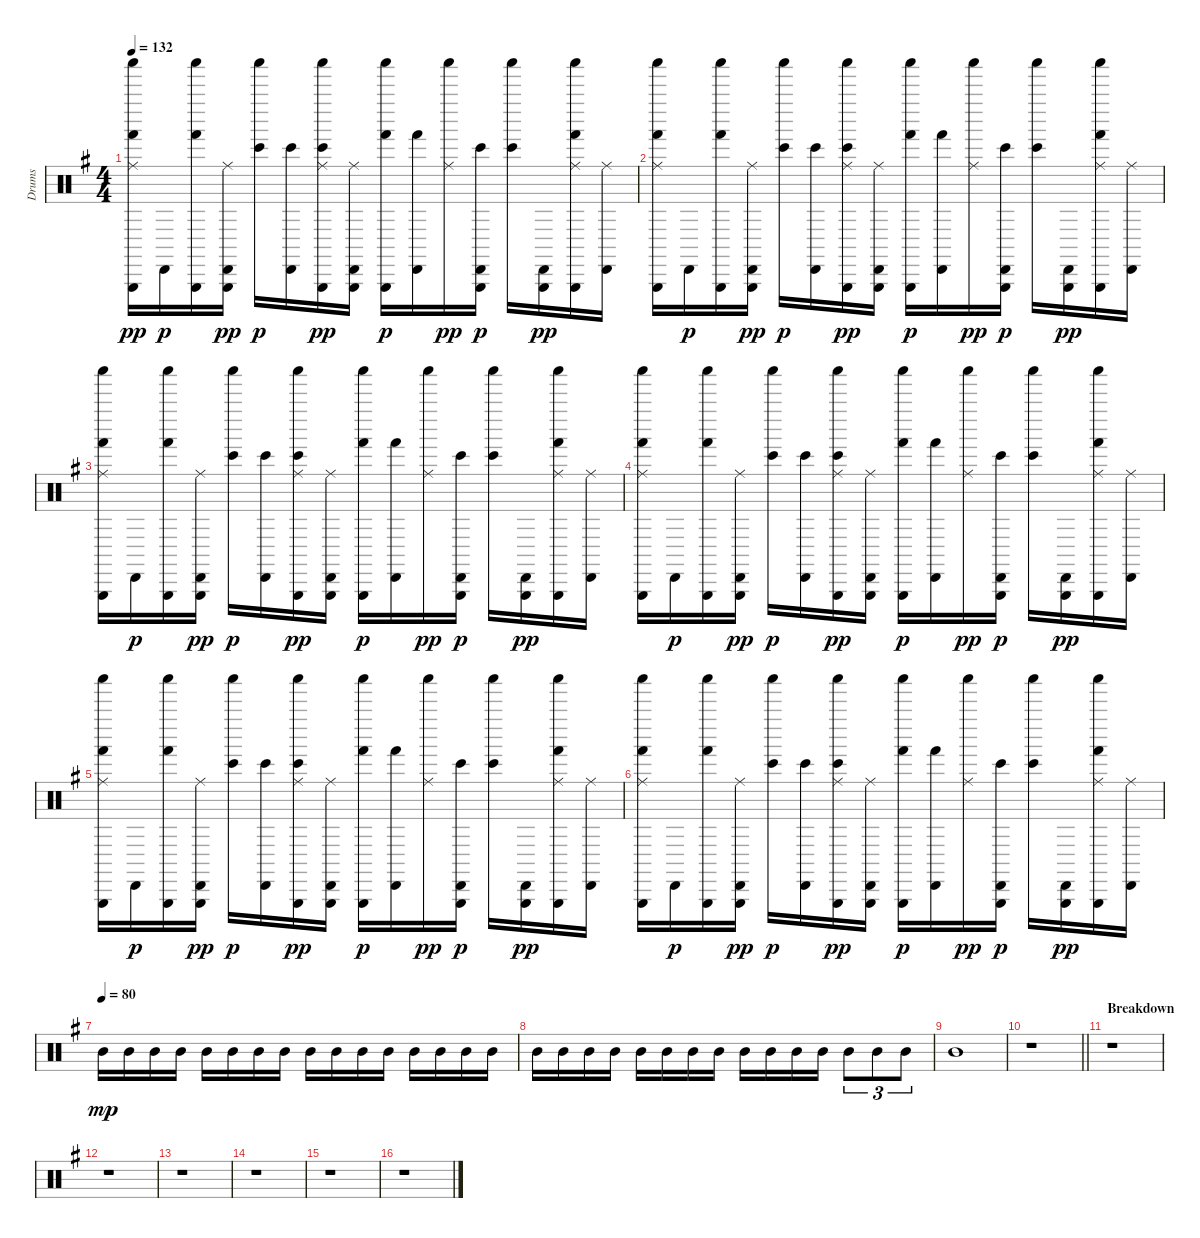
\track ("Drums" "Drums") {instrument percussion}
\staff {score}
\articulation defaults
\ts (4 4)
\tempo 132
\clef neutral
\ks g
("Shaker (hit)" "Triangle (hit)" "Hand (hit)" "Ride (middle)").16{dy pp} "Cabasa (hit)".16{dy p} ("Shaker (hit)" "Triangle (hit)" "Hand (hit)").16 ("Cabasa (hit)" "Triangle (hit)" "Ride (middle)").16{dy pp} ("Shaker (hit)" "Bongo High (hit)").16{dy p} ("Cabasa (hit)" "Bongo High (hit)").16 ("Shaker (hit)" "Triangle (hit)" "Bongo High (hit)" "Ride (middle)").16{dy pp} ("Cabasa (hit)" "Triangle (hit)" "Ride (middle)").16 ("Shaker (hit)" "Triangle (hit)" "Hand (hit)").16{dy p} ("Cabasa (hit)" "Hand (hit)").16 ("Shaker (hit)" "Ride (middle)").16{dy pp} ("Cabasa (hit)" "Triangle (hit)" "Bongo High (hit)").16{dy p} ("Shaker (hit)" "Bongo High (hit)").16 ("Cabasa (hit)" "Triangle (hit)").16{dy pp} ("Shaker (hit)" "Triangle (hit)" "Hand (hit)" "Ride (middle)").16 ("Cabasa (hit)" "Ride (middle)").16 |
("Shaker (hit)" "Triangle (hit)" "Hand (hit)" "Ride (middle)").16 "Cabasa (hit)".16{dy p} ("Shaker (hit)" "Triangle (hit)" "Hand (hit)").16 ("Cabasa (hit)" "Triangle (hit)" "Ride (middle)").16{dy pp} ("Shaker (hit)" "Bongo High (hit)").16{dy p} ("Cabasa (hit)" "Bongo High (hit)").16 ("Shaker (hit)" "Triangle (hit)" "Bongo High (hit)" "Ride (middle)").16{dy pp} ("Cabasa (hit)" "Triangle (hit)" "Ride (middle)").16 ("Shaker (hit)" "Triangle (hit)" "Hand (hit)").16{dy p} ("Cabasa (hit)" "Hand (hit)").16 ("Shaker (hit)" "Ride (middle)").16{dy pp} ("Cabasa (hit)" "Triangle (hit)" "Bongo High (hit)").16{dy p} ("Shaker (hit)" "Bongo High (hit)").16 ("Cabasa (hit)" "Triangle (hit)").16{dy pp} ("Shaker (hit)" "Triangle (hit)" "Hand (hit)" "Ride (middle)").16 ("Cabasa (hit)" "Ride (middle)").16 |
("Shaker (hit)" "Triangle (hit)" "Hand (hit)" "Ride (middle)").16 "Cabasa (hit)".16{dy p} ("Shaker (hit)" "Triangle (hit)" "Hand (hit)").16 ("Cabasa (hit)" "Triangle (hit)" "Ride (middle)").16{dy pp} ("Shaker (hit)" "Bongo High (hit)").16{dy p} ("Cabasa (hit)" "Bongo High (hit)").16 ("Shaker (hit)" "Triangle (hit)" "Bongo High (hit)" "Ride (middle)").16{dy pp} ("Cabasa (hit)" "Triangle (hit)" "Ride (middle)").16 ("Shaker (hit)" "Triangle (hit)" "Hand (hit)").16{dy p} ("Cabasa (hit)" "Hand (hit)").16 ("Shaker (hit)" "Ride (middle)").16{dy pp} ("Cabasa (hit)" "Triangle (hit)" "Bongo High (hit)").16{dy p} ("Shaker (hit)" "Bongo High (hit)").16 ("Cabasa (hit)" "Triangle (hit)").16{dy pp} ("Shaker (hit)" "Triangle (hit)" "Hand (hit)" "Ride (middle)").16 ("Cabasa (hit)" "Ride (middle)").16 |
("Shaker (hit)" "Triangle (hit)" "Hand (hit)" "Ride (middle)").16 "Cabasa (hit)".16{dy p} ("Shaker (hit)" "Triangle (hit)" "Hand (hit)").16 ("Cabasa (hit)" "Triangle (hit)" "Ride (middle)").16{dy pp} ("Shaker (hit)" "Bongo High (hit)").16{dy p} ("Cabasa (hit)" "Bongo High (hit)").16 ("Shaker (hit)" "Triangle (hit)" "Bongo High (hit)" "Ride (middle)").16{dy pp} ("Cabasa (hit)" "Triangle (hit)" "Ride (middle)").16 ("Shaker (hit)" "Triangle (hit)" "Hand (hit)").16{dy p} ("Cabasa (hit)" "Hand (hit)").16 ("Shaker (hit)" "Ride (middle)").16{dy pp} ("Cabasa (hit)" "Triangle (hit)" "Bongo High (hit)").16{dy p} ("Shaker (hit)" "Bongo High (hit)").16 ("Cabasa (hit)" "Triangle (hit)").16{dy pp} ("Shaker (hit)" "Triangle (hit)" "Hand (hit)" "Ride (middle)").16 ("Cabasa (hit)" "Ride (middle)").16 |
("Shaker (hit)" "Triangle (hit)" "Hand (hit)" "Ride (middle)").16 "Cabasa (hit)".16{dy p} ("Shaker (hit)" "Triangle (hit)" "Hand (hit)").16 ("Cabasa (hit)" "Triangle (hit)" "Ride (middle)").16{dy pp} ("Shaker (hit)" "Bongo High (hit)").16{dy p} ("Cabasa (hit)" "Bongo High (hit)").16 ("Shaker (hit)" "Triangle (hit)" "Bongo High (hit)" "Ride (middle)").16{dy pp} ("Cabasa (hit)" "Triangle (hit)" "Ride (middle)").16 ("Shaker (hit)" "Triangle (hit)" "Hand (hit)").16{dy p} ("Cabasa (hit)" "Hand (hit)").16 ("Shaker (hit)" "Ride (middle)").16{dy pp} ("Cabasa (hit)" "Triangle (hit)" "Bongo High (hit)").16{dy p} ("Shaker (hit)" "Bongo High (hit)").16 ("Cabasa (hit)" "Triangle (hit)").16{dy pp} ("Shaker (hit)" "Triangle (hit)" "Hand (hit)" "Ride (middle)").16 ("Cabasa (hit)" "Ride (middle)").16 |
("Shaker (hit)" "Triangle (hit)" "Hand (hit)" "Ride (middle)").16 "Cabasa (hit)".16{dy p} ("Shaker (hit)" "Triangle (hit)" "Hand (hit)").16 ("Cabasa (hit)" "Triangle (hit)" "Ride (middle)").16{dy pp} ("Shaker (hit)" "Bongo High (hit)").16{dy p} ("Cabasa (hit)" "Bongo High (hit)").16 ("Shaker (hit)" "Triangle (hit)" "Bongo High (hit)" "Ride (middle)").16{dy pp} ("Cabasa (hit)" "Triangle (hit)" "Ride (middle)").16 ("Shaker (hit)" "Triangle (hit)" "Hand (hit)").16{dy p} ("Cabasa (hit)" "Hand (hit)").16 ("Shaker (hit)" "Ride (middle)").16{dy pp} ("Cabasa (hit)" "Triangle (hit)" "Bongo High (hit)").16{dy p} ("Shaker (hit)" "Bongo High (hit)").16 ("Cabasa (hit)" "Triangle (hit)").16{dy pp} ("Shaker (hit)" "Triangle (hit)" "Hand (hit)" "Ride (middle)").16 ("Cabasa (hit)" "Ride (middle)").16 |
\tempo (80)
"Mid Tom (hit)".16{dy mp} "Mid Tom (hit)".16 "Mid Tom (hit)".16 "Mid Tom (hit)".16 "Mid Tom (hit)".16 "Mid Tom (hit)".16 "Mid Tom (hit)".16 "Mid Tom (hit)".16 "Mid Tom (hit)".16 "Mid Tom (hit)".16 "Mid Tom (hit)".16 "Mid Tom (hit)".16 "Mid Tom (hit)".16 "Mid Tom (hit)".16 "Mid Tom (hit)".16 "Mid Tom (hit)".16 |
"Mid Tom (hit)".16 "Mid Tom (hit)".16 "Mid Tom (hit)".16 "Mid Tom (hit)".16 "Mid Tom (hit)".16 "Mid Tom (hit)".16 "Mid Tom (hit)".16 "Mid Tom (hit)".16 "Mid Tom (hit)".16 "Mid Tom (hit)".16 "Mid Tom (hit)".16 "Mid Tom (hit)".16 "Mid Tom (hit)".8{tu (3 2)} "Mid Tom (hit)".8{tu (3 2)} "Mid Tom (hit)".8{tu (3 2)} |
"Mid Tom (hit)".1 |
\barLineRight lightlight
r.1 |
\section ("" "Breakdown")
r.1 |
r.1 |
r.1 |
r.1 |
r.1 |
r.1
